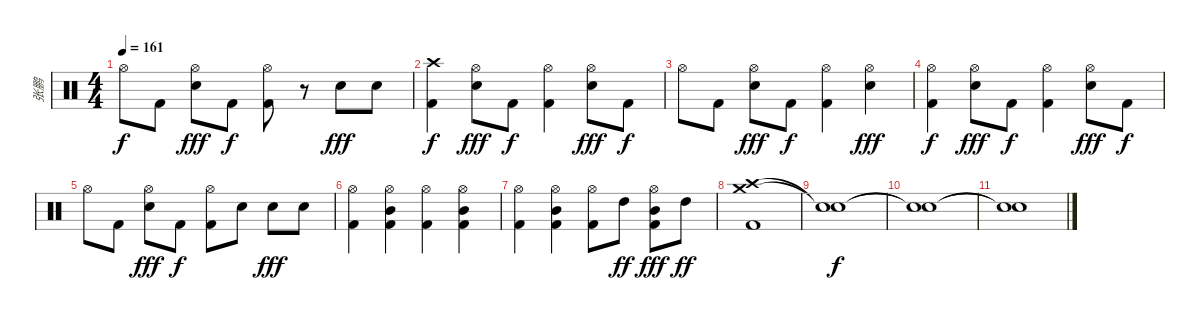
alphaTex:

\track ("张鹏" "张鹏") {instrument percussion}
\staff {score}
\articulation defaults
\ts (4 4)
\tempo 161
\clef neutral
\ks c "Hi-Hat (open)".8{dy f} "Kick (hit) 2".8
("Hi-Hat (open)" "Electric Snare (hit)").8{dy fff} "Kick (hit) 2".8{dy f} ("Hi-Hat (open)" "Kick (hit) 2").8 r.8 "Electric Snare (hit)".8{dy fff} "Electric Snare (hit)".8 |
("Crash high (hit)" "Kick (hit) 2").4{dy f} ("Hi-Hat (open)" "Electric Snare (hit)").8{dy fff} "Kick (hit) 2".8{dy f} ("Hi-Hat (open)" "Kick (hit) 2").4 ("Hi-Hat (open)" "Electric Snare (hit)").8{dy fff} "Kick (hit) 2".8{dy f} |
"Hi-Hat (open)".8 "Kick (hit) 2".8 ("Hi-Hat (open)" "Electric Snare (hit)").8{dy fff} "Kick (hit) 2".8{dy f} ("Hi-Hat (open)" "Kick (hit) 2").4 ("Hi-Hat (open)" "Electric Snare (hit)").4{dy fff} |
("Hi-Hat (open)" "Kick (hit) 2").4{dy f} ("Hi-Hat (open)" "Electric Snare (hit)").8{dy fff} "Kick (hit) 2".8{dy f} ("Hi-Hat (open)" "Kick (hit) 2").4 ("Hi-Hat (open)" "Electric Snare (hit)").8{dy fff} "Kick (hit) 2".8{dy f} |
"Hi-Hat (open)".8 "Kick (hit) 2".8 ("Hi-Hat (open)" "Electric Snare (hit)").8{dy fff} "Kick (hit) 2".8{dy f} ("Hi-Hat (open)" "Kick (hit) 2").8 "Electric Snare (hit)".8 "Electric Snare (hit)".8{dy fff} "Electric Snare (hit)".8 |
("Hi-Hat (open)" "Kick (hit) 2").4 ("Hi-Hat (open)" "Mid Tom (hit)" "Kick (hit) 2").4 ("Hi-Hat (open)" "Kick (hit) 2").4 ("Hi-Hat (open)" "Mid Tom (hit)" "Kick (hit) 2").4 |
("Hi-Hat (open)" "Kick (hit) 2").4 ("Hi-Hat (open)" "Mid Tom (hit)" "Kick (hit) 2").4 ("Hi-Hat (open)" "Kick (hit) 2").8 "High Tom (hit)".8{dy ff} ("Hi-Hat (open)" "Mid Tom (hit)" "Kick (hit) 2").8{dy fff} "High Tom (hit)".8{dy ff} |
("Crash high (hit)" "Crash medium (hit)" "Kick (hit) 2").1 |
("Snare (hit)"{t} "Snare (hit)"{t}).1{dy f} |
("Snare (hit)"{t} "Snare (hit)"{t}).1 |
("Snare (hit)"{t} "Snare (hit)"{t}).1
